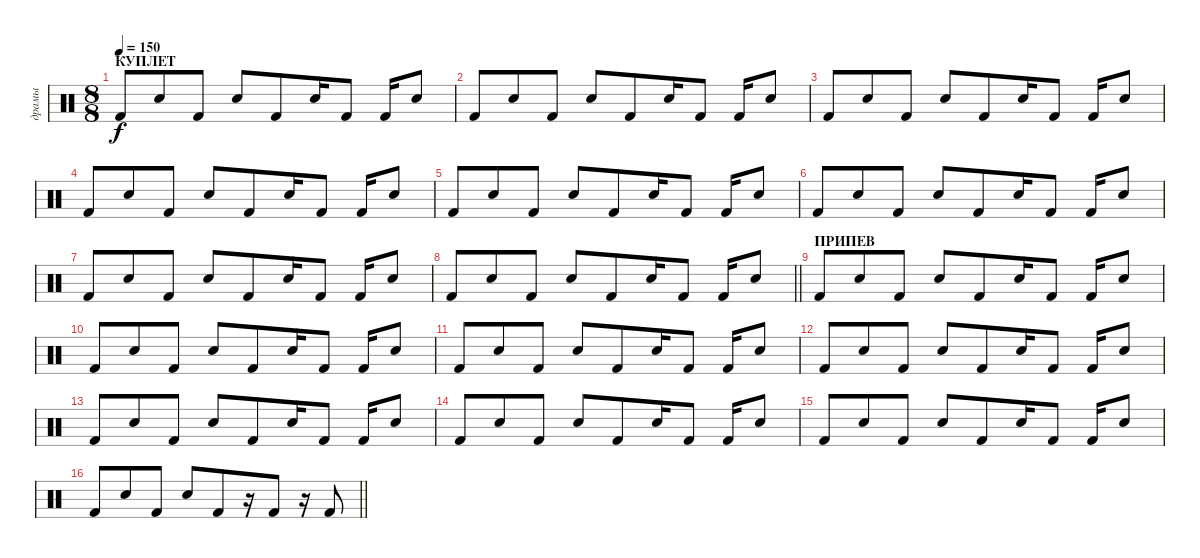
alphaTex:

\track ("драмы" "драмы") {instrument percussion}
\staff {score}
\articulation defaults
\ts (8 8)
\section ("" "КУПЛЕТ")
\tempo 150
\clef neutral
\ks c "Kick (hit) 2".8{dy f} "Electric Snare (hit)".8 "Kick (hit) 2".8 "Electric Snare (hit)".8 "Kick (hit) 2".8 "Electric Snare (hit)".16 "Kick (hit) 2".8 "Kick (hit) 2".16 "Electric Snare (hit)".8
|
"Kick (hit) 2".8 "Electric Snare (hit)".8 "Kick (hit) 2".8 "Electric Snare (hit)".8 "Kick (hit) 2".8 "Electric Snare (hit)".16 "Kick (hit) 2".8 "Kick (hit) 2".16 "Electric Snare (hit)".8 |
"Kick (hit) 2".8 "Electric Snare (hit)".8 "Kick (hit) 2".8 "Electric Snare (hit)".8 "Kick (hit) 2".8 "Electric Snare (hit)".16 "Kick (hit) 2".8 "Kick (hit) 2".16 "Electric Snare (hit)".8 |
"Kick (hit) 2".8 "Electric Snare (hit)".8 "Kick (hit) 2".8 "Electric Snare (hit)".8 "Kick (hit) 2".8 "Electric Snare (hit)".16 "Kick (hit) 2".8 "Kick (hit) 2".16 "Electric Snare (hit)".8 |
"Kick (hit) 2".8 "Electric Snare (hit)".8 "Kick (hit) 2".8 "Electric Snare (hit)".8 "Kick (hit) 2".8 "Electric Snare (hit)".16 "Kick (hit) 2".8 "Kick (hit) 2".16 "Electric Snare (hit)".8 |
"Kick (hit) 2".8 "Electric Snare (hit)".8 "Kick (hit) 2".8 "Electric Snare (hit)".8 "Kick (hit) 2".8 "Electric Snare (hit)".16 "Kick (hit) 2".8 "Kick (hit) 2".16 "Electric Snare (hit)".8 |
"Kick (hit) 2".8 "Electric Snare (hit)".8 "Kick (hit) 2".8 "Electric Snare (hit)".8 "Kick (hit) 2".8 "Electric Snare (hit)".16 "Kick (hit) 2".8 "Kick (hit) 2".16 "Electric Snare (hit)".8 |
\barLineRight lightlight "Kick (hit) 2".8 "Electric Snare (hit)".8 "Kick (hit) 2".8 "Electric Snare (hit)".8 "Kick (hit) 2".8 "Electric Snare (hit)".16 "Kick (hit) 2".8 "Kick (hit) 2".16 "Electric Snare (hit)".8
|
\section ("" "ПРИПЕВ")
"Kick (hit) 2".8 "Electric Snare (hit)".8 "Kick (hit) 2".8 "Electric Snare (hit)".8 "Kick (hit) 2".8 "Electric Snare (hit)".16 "Kick (hit) 2".8 "Kick (hit) 2".16 "Electric Snare (hit)".8 |
"Kick (hit) 2".8 "Electric Snare (hit)".8 "Kick (hit) 2".8 "Electric Snare (hit)".8 "Kick (hit) 2".8 "Electric Snare (hit)".16 "Kick (hit) 2".8 "Kick (hit) 2".16 "Electric Snare (hit)".8 |
"Kick (hit) 2".8 "Electric Snare (hit)".8 "Kick (hit) 2".8 "Electric Snare (hit)".8 "Kick (hit) 2".8 "Electric Snare (hit)".16 "Kick (hit) 2".8 "Kick (hit) 2".16 "Electric Snare (hit)".8 |
"Kick (hit) 2".8 "Electric Snare (hit)".8 "Kick (hit) 2".8 "Electric Snare (hit)".8 "Kick (hit) 2".8 "Electric Snare (hit)".16 "Kick (hit) 2".8 "Kick (hit) 2".16 "Electric Snare (hit)".8 |
"Kick (hit) 2".8 "Electric Snare (hit)".8 "Kick (hit) 2".8 "Electric Snare (hit)".8 "Kick (hit) 2".8 "Electric Snare (hit)".16 "Kick (hit) 2".8 "Kick (hit) 2".16 "Electric Snare (hit)".8 |
"Kick (hit) 2".8 "Electric Snare (hit)".8 "Kick (hit) 2".8 "Electric Snare (hit)".8 "Kick (hit) 2".8 "Electric Snare (hit)".16 "Kick (hit) 2".8 "Kick (hit) 2".16 "Electric Snare (hit)".8 |
"Kick (hit) 2".8 "Electric Snare (hit)".8 "Kick (hit) 2".8 "Electric Snare (hit)".8 "Kick (hit) 2".8 "Electric Snare (hit)".16 "Kick (hit) 2".8 "Kick (hit) 2".16 "Electric Snare (hit)".8 |
\barLineRight lightlight "Kick (hit) 2".8 "Electric Snare (hit)".8 "Kick (hit) 2".8 "Electric Snare (hit)".8 "Kick (hit) 2".8
r.16 "Kick (hit) 2".8 r.16 "Kick (hit) 2".8
